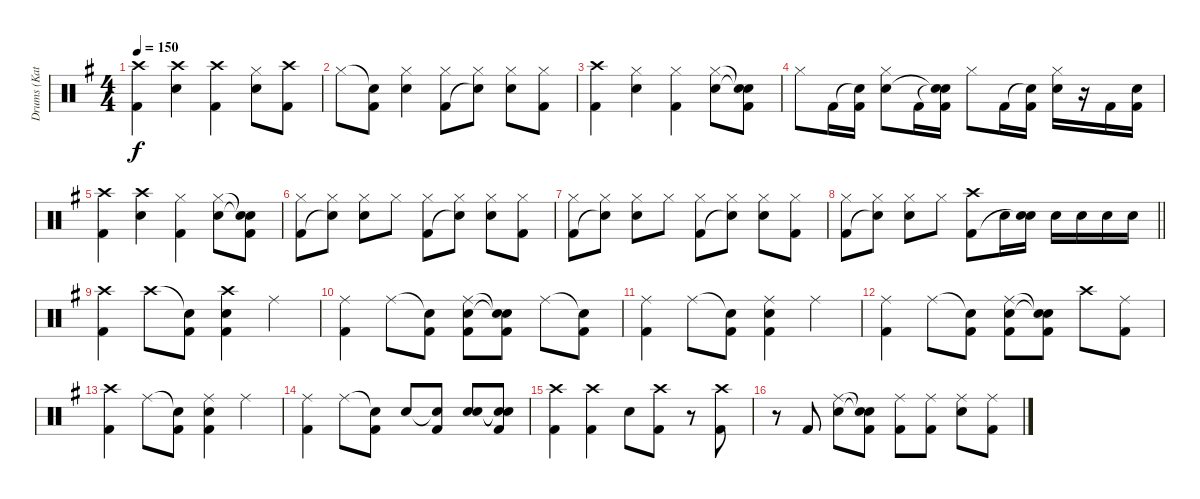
\track ("Drums (Katsuji)" "Drums (Kat") {instrument percussion}
\staff {score}
\articulation defaults
\ts (4 4)
\tempo 150
\clef neutral
\ks g
("Crash high (hit)" "Kick (hit) 2").4{dy f} ("Crash high (hit)" "Snare (hit) 2").4 ("Crash high (hit)" "Kick (hit) 2").4 ("Hi-Hat (closed)" "Snare (hit) 2").8 ("Crash high (hit)" "Kick (hit) 2").8 |
"Hi-Hat (closed)".8 ("Snare (hit)"{t} "Kick (hit) 2").8 ("Hi-Hat (closed)" "Snare (hit) 2").4 ("Hi-Hat (closed)" "Kick (hit) 2").8 ("Hi-Hat (closed)" "Snare (hit)"{t}).8 ("Hi-Hat (closed)" "Snare (hit) 2").8 ("Hi-Hat (closed)" "Kick (hit) 2").8 |
("Crash high (hit)" "Kick (hit) 2").4 ("Hi-Hat (closed)" "Snare (hit) 2").4 ("Hi-Hat (closed)" "Kick (hit) 2").4 ("Hi-Hat (closed)" "Snare (hit) 2").8 ("Snare (hit)"{t} "Snare (hit)"{t} "Kick (hit) 2").8 |
"Hi-Hat (closed)".8 "Kick (hit) 2".16 ("Snare (hit)"{t} "Kick (hit) 2").16 ("Hi-Hat (closed)" "Snare (hit) 2").8 "Kick (hit) 2".16 ("Snare (hit)"{t} "Snare (hit)"{t} "Kick (hit) 2").16 "Hi-Hat (closed)".8 "Kick (hit) 2".16 ("Snare (hit)"{t} "Kick (hit) 2").16 ("Hi-Hat (closed)" "Snare (hit) 2").16 r.16 "Kick (hit) 2".16 ("Snare (hit) 2" "Kick (hit) 2").16 |
("Crash high (hit)" "Kick (hit) 2").4 ("Crash high (hit)" "Snare (hit) 2").4 ("Hi-Hat (closed)" "Kick (hit) 2").4 ("Hi-Hat (closed)" "Snare (hit) 2").8 ("Snare (hit)"{t} "Snare (hit)"{t} "Kick (hit) 2").8 |
("Hi-Hat (closed)" "Kick (hit) 2").8 ("Hi-Hat (closed)" "Snare (hit)"{t}).8 ("Hi-Hat (closed)" "Snare (hit) 2").8 "Hi-Hat (closed)".8 ("Hi-Hat (closed)" "Kick (hit) 2").8 ("Hi-Hat (closed)" "Snare (hit)"{t}).8 ("Hi-Hat (closed)" "Snare (hit) 2").8 ("Hi-Hat (closed)" "Kick (hit) 2").8 |
("Hi-Hat (closed)" "Kick (hit) 2").8 ("Hi-Hat (closed)" "Snare (hit)"{t}).8 ("Hi-Hat (closed)" "Snare (hit) 2").8 "Hi-Hat (closed)".8 ("Hi-Hat (closed)" "Kick (hit) 2").8 ("Hi-Hat (closed)" "Snare (hit)"{t}).8 ("Hi-Hat (closed)" "Snare (hit) 2").8 ("Hi-Hat (closed)" "Kick (hit) 2").8 |
\barLineRight lightlight
("Hi-Hat (closed)" "Kick (hit) 2").8 ("Hi-Hat (closed)" "Snare (hit)"{t}).8 ("Hi-Hat (closed)" "Snare (hit) 2").8 "Hi-Hat (closed)".8 ("Crash high (hit)" "Kick (hit) 2").8 "Snare (hit) 2".16 ("Snare (hit) 2" "Snare (hit)"{t}).16 "Snare (hit) 2".16 "Snare (hit) 2".16 "Snare (hit) 2".16 "Snare (hit) 2".16 |
("Crash high (hit)" "Kick (hit) 2").4 "Crash high (hit)".8 ("Snare (hit)"{t} "Kick (hit) 2").8 ("Crash high (hit)" "Snare (hit) 2" "Kick (hit) 2").4 "Ride (middle)".4 |
("Ride (middle)" "Kick (hit) 2").4 "Ride (middle)".8 ("Snare (hit)"{t} "Kick (hit) 2").8 ("Ride (middle)" "Snare (hit) 2" "Kick (hit) 2").8 ("Snare (hit)"{t} "Snare (hit)"{t} "Kick (hit) 2").8 "Ride (middle)".8 ("Snare (hit)"{t} "Kick (hit) 2").8 |
("Ride (middle)" "Kick (hit) 2").4 "Ride (middle)".8 ("Snare (hit)"{t} "Kick (hit) 2").8 ("Ride (middle)" "Snare (hit) 2" "Kick (hit) 2").4 "Ride (middle)".4 |
("Ride (middle)" "Kick (hit) 2").4 "Ride (middle)".8 ("Snare (hit)"{t} "Kick (hit) 2").8 ("Ride (middle)" "Snare (hit) 2" "Kick (hit) 2").8 ("Snare (hit)"{t} "Snare (hit)"{t} "Kick (hit) 2").8 "Crash high (hit)".8 ("Ride (middle)" "Kick (hit) 2").8 |
("Crash high (hit)" "Kick (hit) 2").4 "Ride (middle)".8 ("Snare (hit)"{t} "Kick (hit) 2").8 ("Ride (middle)" "Snare (hit) 2" "Kick (hit) 2").4 "Ride (middle)".4 |
("Ride (middle)" "Kick (hit) 2").4 "Ride (middle)".8 ("Snare (hit)"{t} "Kick (hit) 2").8 "Snare (hit) 2".8 ("Snare (hit)"{t} "Kick (hit) 2").8 ("Snare (hit) 2" "Snare (hit) 2").8 ("Snare (hit)"{t} "Snare (hit)"{t} "Kick (hit) 2").8 |
("Crash high (hit)" "Kick (hit) 2").4 ("Crash high (hit)" "Kick (hit) 2").4 "Snare (hit) 2".8 ("Crash high (hit)" "Kick (hit) 2").8 r.8 ("Crash high (hit)" "Kick (hit) 2").8 |
r.8 "Kick (hit) 2".8 ("Ride (middle)" "Snare (hit) 2").8 ("Snare (hit)"{t} "Snare (hit)"{t} "Kick (hit) 2").8 ("Ride (middle)" "Kick (hit) 2").8 ("Ride (middle)" "Kick (hit) 2").8 ("Ride (middle)" "Snare (hit) 2").8 ("Ride (middle)" "Kick (hit) 2").8
